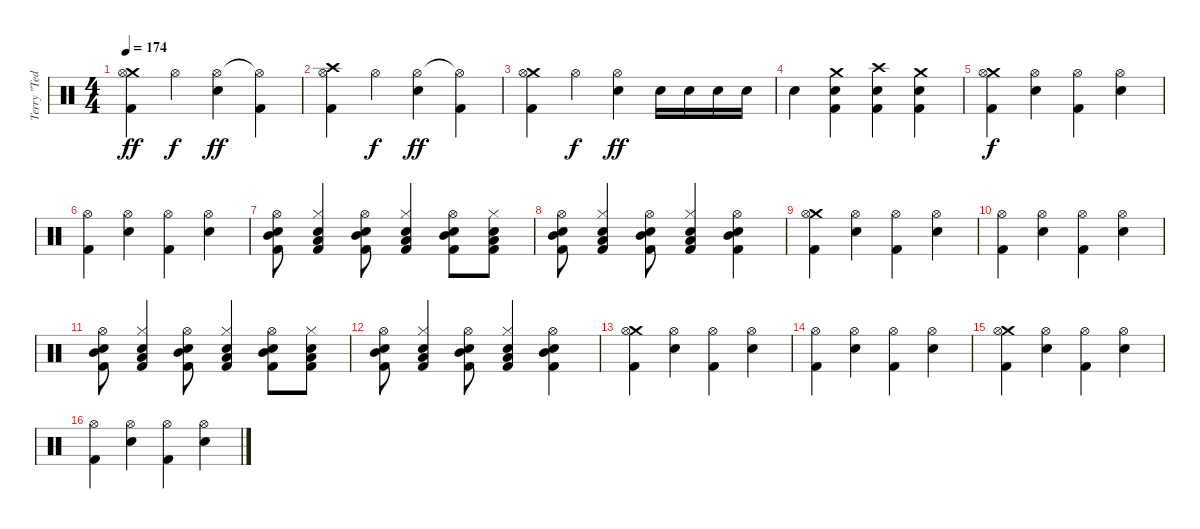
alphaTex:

\track ("Terry \"Ted\" Bozzio" "Terry \"Ted") {instrument percussion}
\staff {score}
\articulation defaults
\ts (4 4)
\tempo 174
\clef neutral
\ks c
("Crash medium (hit)" "Hi-Hat (open)" "Kick (hit) 2").4{dy ff} "Hi-Hat (open)".4{dy f} ("Hi-Hat (open)" "Electric Snare (hit)").4{dy ff} ("Hi-Hat (open)"{t} "Kick (hit) 2").4 |
("Crash high (hit)" "Hi-Hat (open)" "Kick (hit) 2").4 "Hi-Hat (open)".4{dy f} ("Hi-Hat (open)" "Electric Snare (hit)").4{dy ff} ("Hi-Hat (open)"{t} "Kick (hit) 2").4 |
("Crash medium (hit)" "Hi-Hat (open)" "Kick (hit) 2").4 "Hi-Hat (open)".4{dy f} ("Hi-Hat (open)" "Electric Snare (hit)").4{dy ff} "Electric Snare (hit)".16 "Electric Snare (hit)".16 "Electric Snare (hit)".16 "Electric Snare (hit)".16 |
"Electric Snare (hit)".4 ("Crash medium (hit)" "Electric Snare (hit)" "Kick (hit) 2").4 ("Crash high (hit)" "Electric Snare (hit)" "Kick (hit) 2").4 ("Crash medium (hit)" "Electric Snare (hit)" "Kick (hit) 2").4 |
("Crash medium (hit)" "Hi-Hat (open)" "Kick (hit) 2").4{dy f} ("Hi-Hat (open)" "Electric Snare (hit)").4 ("Hi-Hat (open)" "Kick (hit) 2").4 ("Hi-Hat (open)" "Electric Snare (hit)").4 |
("Hi-Hat (open)" "Kick (hit) 2").4 ("Hi-Hat (open)" "Electric Snare (hit)").4 ("Hi-Hat (open)" "Kick (hit) 2").4 ("Hi-Hat (open)" "Electric Snare (hit)").4 |
("Hi-Hat (open)" "Mid Tom (hit)" "Electric Snare (hit)" "Kick (hit) 2").8 ("Hi-Hat (closed)" "Low Tom (hit)" "Electric Snare (hit)" "Kick (hit) 2").4 ("Hi-Hat (open)" "Mid Tom (hit)" "Electric Snare (hit)" "Kick (hit) 2").8 ("Hi-Hat (closed)" "Low Tom (hit)" "Electric Snare (hit)" "Kick (hit) 2").4 ("Hi-Hat (open)" "Mid Tom (hit)" "Electric Snare (hit)" "Kick (hit) 2").8 ("Hi-Hat (closed)" "Low Tom (hit)" "Electric Snare (hit)" "Kick (hit) 2").8 |
("Hi-Hat (open)" "Mid Tom (hit)" "Electric Snare (hit)" "Kick (hit) 2").8 ("Hi-Hat (closed)" "Low Tom (hit)" "Electric Snare (hit)" "Kick (hit) 2").4 ("Hi-Hat (open)" "Mid Tom (hit)" "Electric Snare (hit)" "Kick (hit) 2").8 ("Hi-Hat (closed)" "Low Tom (hit)" "Electric Snare (hit)" "Kick (hit) 2").4 ("Hi-Hat (open)" "Mid Tom (hit)" "Electric Snare (hit)" "Kick (hit) 2").4 |
("Crash medium (hit)" "Hi-Hat (open)" "Kick (hit) 2").4 ("Hi-Hat (open)" "Electric Snare (hit)").4 ("Hi-Hat (open)" "Kick (hit) 2").4 ("Hi-Hat (open)" "Electric Snare (hit)").4 |
("Hi-Hat (open)" "Kick (hit) 2").4 ("Hi-Hat (open)" "Electric Snare (hit)").4 ("Hi-Hat (open)" "Kick (hit) 2").4 ("Hi-Hat (open)" "Electric Snare (hit)").4 |
("Hi-Hat (open)" "Mid Tom (hit)" "Electric Snare (hit)" "Kick (hit) 2").8 ("Hi-Hat (closed)" "Low Tom (hit)" "Electric Snare (hit)" "Kick (hit) 2").4 ("Hi-Hat (open)" "Mid Tom (hit)" "Electric Snare (hit)" "Kick (hit) 2").8 ("Hi-Hat (closed)" "Low Tom (hit)" "Electric Snare (hit)" "Kick (hit) 2").4 ("Hi-Hat (open)" "Mid Tom (hit)" "Electric Snare (hit)" "Kick (hit) 2").8 ("Hi-Hat (closed)" "Low Tom (hit)" "Electric Snare (hit)" "Kick (hit) 2").8 |
("Hi-Hat (open)" "Mid Tom (hit)" "Electric Snare (hit)" "Kick (hit) 2").8 ("Hi-Hat (closed)" "Low Tom (hit)" "Electric Snare (hit)" "Kick (hit) 2").4 ("Hi-Hat (open)" "Mid Tom (hit)" "Electric Snare (hit)" "Kick (hit) 2").8 ("Hi-Hat (closed)" "Low Tom (hit)" "Electric Snare (hit)" "Kick (hit) 2").4 ("Hi-Hat (open)" "Mid Tom (hit)" "Electric Snare (hit)" "Kick (hit) 2").4 |
("Crash medium (hit)" "Hi-Hat (open)" "Kick (hit) 2").4 ("Hi-Hat (open)" "Electric Snare (hit)").4 ("Hi-Hat (open)" "Kick (hit) 2").4 ("Hi-Hat (open)" "Electric Snare (hit)").4 |
("Hi-Hat (open)" "Kick (hit) 2").4 ("Hi-Hat (open)" "Electric Snare (hit)").4 ("Hi-Hat (open)" "Kick (hit) 2").4 ("Hi-Hat (open)" "Electric Snare (hit)").4 |
("Crash medium (hit)" "Hi-Hat (open)" "Kick (hit) 2").4 ("Hi-Hat (open)" "Electric Snare (hit)").4 ("Hi-Hat (open)" "Kick (hit) 2").4 ("Hi-Hat (open)" "Electric Snare (hit)").4 |
("Hi-Hat (open)" "Kick (hit) 2").4 ("Hi-Hat (open)" "Electric Snare (hit)").4 ("Hi-Hat (open)" "Kick (hit) 2").4 ("Hi-Hat (open)" "Electric Snare (hit)").4
